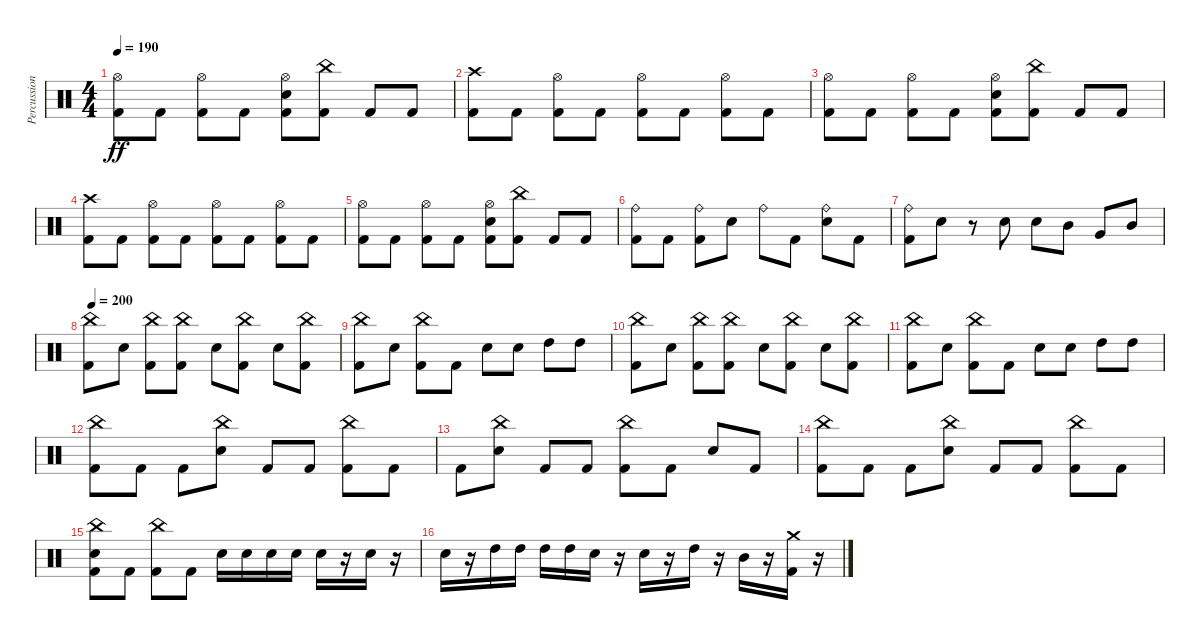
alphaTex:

\track ("Percussion" "Percussion") {instrument percussion}
\staff {score}
\articulation defaults
\ts (4 4)
\tempo 190
\clef neutral
\ks c
("Hi-Hat (open)" "Kick (hit) 2").8{dy ff} "Kick (hit) 2".8 ("Hi-Hat (open)" "Kick (hit) 2").8 "Kick (hit) 2".8 ("Hi-Hat (open)" "Electric Snare (hit)" "Kick (hit) 2").8 ("China (hit)" "Kick (hit) 2").8 "Kick (hit) 2".8 "Kick (hit) 2".8 |
("Crash high (hit)" "Kick (hit) 2").8 "Kick (hit) 2".8 ("Hi-Hat (open)" "Kick (hit) 2").8 "Kick (hit) 2".8 ("Hi-Hat (open)" "Kick (hit) 2").8 "Kick (hit) 2".8 ("Hi-Hat (open)" "Kick (hit) 2").8 "Kick (hit) 2".8 |
("Hi-Hat (open)" "Kick (hit) 2").8 "Kick (hit) 2".8 ("Hi-Hat (open)" "Kick (hit) 2").8 "Kick (hit) 2".8 ("Hi-Hat (open)" "Electric Snare (hit)" "Kick (hit) 2").8 ("China (hit)" "Kick (hit) 2").8 "Kick (hit) 2".8 "Kick (hit) 2".8 |
("Crash high (hit)" "Kick (hit) 2").8 "Kick (hit) 2".8 ("Hi-Hat (open)" "Kick (hit) 2").8 "Kick (hit) 2".8 ("Hi-Hat (open)" "Kick (hit) 2").8 "Kick (hit) 2".8 ("Hi-Hat (open)" "Kick (hit) 2").8 "Kick (hit) 2".8 |
("Hi-Hat (open)" "Kick (hit) 2").8 "Kick (hit) 2".8 ("Hi-Hat (open)" "Kick (hit) 2").8 "Kick (hit) 2".8 ("Hi-Hat (open)" "Electric Snare (hit)" "Kick (hit) 2").8 ("China (hit)" "Kick (hit) 2").8 "Kick (hit) 2".8 "Kick (hit) 2".8 |
("Ride (bell)" "Kick (hit) 2").8 "Kick (hit) 2".8 ("Ride (bell)" "Kick (hit) 2").8 "Electric Snare (hit)".8 "Ride (bell)".8 "Kick (hit) 2".8 ("Ride (bell)" "Electric Snare (hit)").8 "Kick (hit) 2".8 |
("Ride (bell)" "Kick (hit) 2").8 "Electric Snare (hit)".8 r.8 "Electric Snare (hit)".8 "Electric Snare (hit)".8 "Mid Tom (hit)".8 "Very Low Tom (hit)".8 "Mid Tom (hit)".8 |
\tempo 200
("China (hit)" "Kick (hit) 2").8 "Electric Snare (hit)".8 ("China (hit)" "Kick (hit) 2").8 ("China (hit)" "Kick (hit) 2").8 "Electric Snare (hit)".8 ("China (hit)" "Kick (hit) 2").8 "Electric Snare (hit)".8 ("China (hit)" "Kick (hit) 2").8 |
("China (hit)" "Kick (hit) 2").8 "Electric Snare (hit)".8 ("China (hit)" "Kick (hit) 2").8 "Kick (hit) 2".8 "Electric Snare (hit)".8 "Electric Snare (hit)".8 "High Tom (hit)".8 "High Tom (hit)".8 |
("China (hit)" "Kick (hit) 2").8 "Electric Snare (hit)".8 ("China (hit)" "Kick (hit) 2").8 ("China (hit)" "Kick (hit) 2").8 "Electric Snare (hit)".8 ("China (hit)" "Kick (hit) 2").8 "Electric Snare (hit)".8 ("China (hit)" "Kick (hit) 2").8 |
("China (hit)" "Kick (hit) 2").8 "Electric Snare (hit)".8 ("China (hit)" "Kick (hit) 2").8 "Kick (hit) 2".8 "Electric Snare (hit)".8 "Electric Snare (hit)".8 "High Tom (hit)".8 "High Tom (hit)".8 |
("China (hit)" "Kick (hit) 2").8 "Kick (hit) 2".8 "Kick (hit) 2".8 ("China (hit)" "Electric Snare (hit)").8 "Kick (hit) 2".8 "Kick (hit) 2".8 ("China (hit)" "Kick (hit) 2").8 "Kick (hit) 2".8 |
"Kick (hit) 2".8 ("China (hit)" "Electric Snare (hit)").8 "Kick (hit) 2".8 "Kick (hit) 2".8 ("China (hit)" "Kick (hit) 2").8 "Kick (hit) 2".8 "Electric Snare (hit)".8 "Kick (hit) 2".8 |
("China (hit)" "Kick (hit) 2").8 "Kick (hit) 2".8 "Kick (hit) 2".8 ("China (hit)" "Electric Snare (hit)").8 "Kick (hit) 2".8 "Kick (hit) 2".8 ("China (hit)" "Kick (hit) 2").8 "Kick (hit) 2".8 |
("China (hit)" "Electric Snare (hit)" "Kick (hit) 2").8 "Kick (hit) 2".8 ("China (hit)" "Kick (hit) 2").8 "Kick (hit) 2".8 "Electric Snare (hit)".16 "Electric Snare (hit)".16 "Electric Snare (hit)".16 "Electric Snare (hit)".16 "Electric Snare (hit)".16 r.16 "Electric Snare (hit)".16 r.16 |
"Electric Snare (hit)".16 r.16 "High Tom (hit)".16 "High Tom (hit)".16 "High Tom (hit)".16 "High Tom (hit)".16 "Electric Snare (hit)".16 r.16 "Electric Snare (hit)".16 r.16 "High Tom (hit)".16 r.16 "Mid Tom (hit)".16 r.16 ("Crash medium (hit)" "Kick (hit) 2").16 r.16
